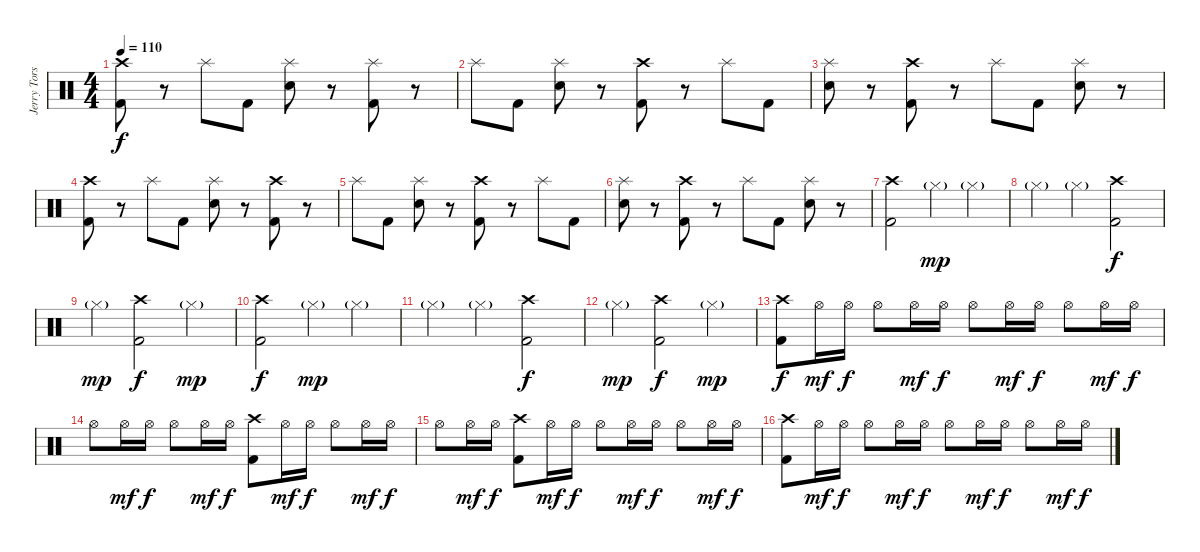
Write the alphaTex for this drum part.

\track ("Jerry Torstensson" "Jerry Tors") {instrument percussion}
\staff {score}
\articulation defaults
\ts (4 4)
\tempo 110
\clef neutral
\ks c
("Crash high (hit)" "Kick (hit) 2").8{dy f} r.8 "Splash (hit)".8 "Kick (hit) 2".8 ("Splash (hit)" "Electric Snare (hit)").8 r.8 ("Splash (hit)" "Kick (hit) 2").8 r.8 |
"Splash (hit)".8 "Kick (hit) 2".8 ("Splash (hit)" "Electric Snare (hit)").8 r.8 ("Crash high (hit)" "Kick (hit) 2").8 r.8 "Splash (hit)".8 "Kick (hit) 2".8 |
("Splash (hit)" "Electric Snare (hit)").8 r.8 ("Crash high (hit)" "Kick (hit) 2").8 r.8 "Splash (hit)".8 "Kick (hit) 2".8 ("Splash (hit)" "Electric Snare (hit)").8 r.8 |
("Crash high (hit)" "Kick (hit) 2").8 r.8 "Splash (hit)".8 "Kick (hit) 2".8 ("Splash (hit)" "Electric Snare (hit)").8 r.8 ("Crash high (hit)" "Kick (hit) 2").8 r.8 |
"Splash (hit)".8 "Kick (hit) 2".8 ("Splash (hit)" "Electric Snare (hit)").8 r.8 ("Crash high (hit)" "Kick (hit) 2").8 r.8 "Splash (hit)".8 "Kick (hit) 2".8 |
("Splash (hit)" "Electric Snare (hit)").8 r.8 ("Crash high (hit)" "Kick (hit) 2").8 r.8 "Splash (hit)".8 "Kick (hit) 2".8 ("Splash (hit)" "Electric Snare (hit)").8 r.8 |
("Crash high (hit)" "Kick (hit) 2").2 "Hi-Hat (closed)"{g}.4{dy mp} "Hi-Hat (closed)"{g}.4 |
"Hi-Hat (closed)"{g}.4 "Hi-Hat (closed)"{g}.4 ("Crash high (hit)" "Kick (hit) 2").2{dy f} |
"Hi-Hat (closed)"{g}.4{dy mp} ("Crash high (hit)" "Kick (hit) 2").2{dy f} "Hi-Hat (closed)"{g}.4{dy mp} |
("Crash high (hit)" "Kick (hit) 2").2{dy f} "Hi-Hat (closed)"{g}.4{dy mp} "Hi-Hat (closed)"{g}.4 |
"Hi-Hat (closed)"{g}.4 "Hi-Hat (closed)"{g}.4 ("Crash high (hit)" "Kick (hit) 2").2{dy f} |
"Hi-Hat (closed)"{g}.4{dy mp} ("Crash high (hit)" "Kick (hit) 2").2{dy f} "Hi-Hat (closed)"{g}.4{dy mp} |
("Crash high (hit)" "Kick (hit) 2").8{dy f} "Hi-Hat (open)".16{dy mf} "Hi-Hat (open)".16{dy f} "Hi-Hat (open)".8 "Hi-Hat (open)".16{dy mf} "Hi-Hat (open)".16{dy f} "Hi-Hat (open)".8 "Hi-Hat (open)".16{dy mf} "Hi-Hat (open)".16{dy f} "Hi-Hat (open)".8 "Hi-Hat (open)".16{dy mf} "Hi-Hat (open)".16{dy f} |
"Hi-Hat (open)".8 "Hi-Hat (open)".16{dy mf} "Hi-Hat (open)".16{dy f} "Hi-Hat (open)".8 "Hi-Hat (open)".16{dy mf} "Hi-Hat (open)".16{dy f} ("Crash high (hit)" "Kick (hit) 2").8 "Hi-Hat (open)".16{dy mf} "Hi-Hat (open)".16{dy f} "Hi-Hat (open)".8 "Hi-Hat (open)".16{dy mf} "Hi-Hat (open)".16{dy f} |
"Hi-Hat (open)".8 "Hi-Hat (open)".16{dy mf} "Hi-Hat (open)".16{dy f} ("Crash high (hit)" "Kick (hit) 2").8 "Hi-Hat (open)".16{dy mf} "Hi-Hat (open)".16{dy f} "Hi-Hat (open)".8 "Hi-Hat (open)".16{dy mf} "Hi-Hat (open)".16{dy f} "Hi-Hat (open)".8 "Hi-Hat (open)".16{dy mf} "Hi-Hat (open)".16{dy f} |
("Crash high (hit)" "Kick (hit) 2").8 "Hi-Hat (open)".16{dy mf} "Hi-Hat (open)".16{dy f} "Hi-Hat (open)".8 "Hi-Hat (open)".16{dy mf} "Hi-Hat (open)".16{dy f} "Hi-Hat (open)".8 "Hi-Hat (open)".16{dy mf} "Hi-Hat (open)".16{dy f} "Hi-Hat (open)".8 "Hi-Hat (open)".16{dy mf} "Hi-Hat (open)".16{dy f}
